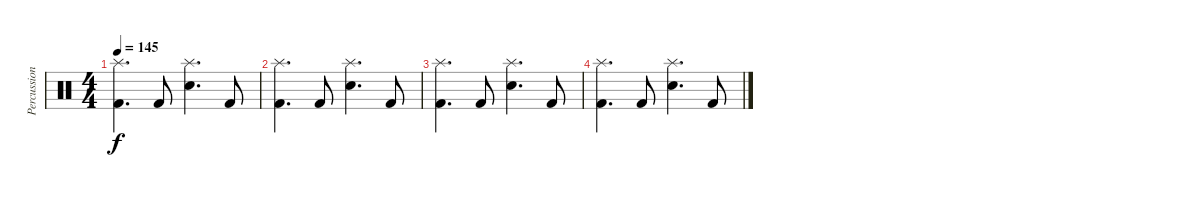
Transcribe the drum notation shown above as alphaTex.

\track ("Percussion" "Percussion") {instrument percussion}
\staff {score}
\articulation defaults
\ts (4 4)
\tempo 145
\clef neutral
\ks c
("Splash (hit)" "Kick (hit) 2").4{d dy f} "Kick (hit) 2".8 ("Splash (hit)" "Electric Snare (hit)").4{d} "Kick (hit) 2".8 |
("Splash (hit)" "Kick (hit) 2").4{d} "Kick (hit) 2".8 ("Splash (hit)" "Electric Snare (hit)").4{d} "Kick (hit) 2".8 |
("Splash (hit)" "Kick (hit) 2").4{d} "Kick (hit) 2".8 ("Splash (hit)" "Electric Snare (hit)").4{d} "Kick (hit) 2".8 |
("Splash (hit)" "Kick (hit) 2").4{d} "Kick (hit) 2".8 ("Splash (hit)" "Electric Snare (hit)").4{d} "Kick (hit) 2".8
